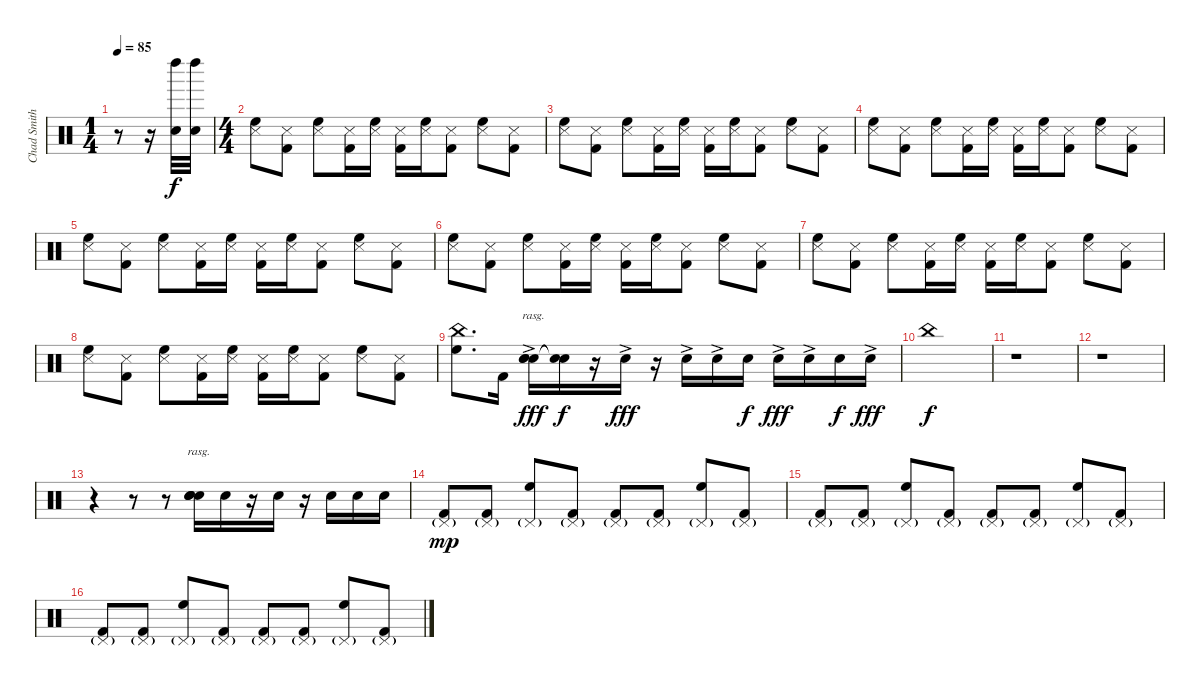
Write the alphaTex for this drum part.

\track ("Chad Smith - Drums" "Chad Smith") {instrument percussion}
\staff {score}
\articulation defaults
\ts (1 4)
\tempo 85
\clef neutral
\ks c
r.8{dy f} r.16 ("Left Maraca (hit)" "Electric Snare (hit)").32 ("Left Maraca (hit)" "Electric Snare (hit)").32 |
\ts (4 4)
("Snare (side stick) 3" "High Floor Tom (hit)").8 ("Snare (side stick) 3" "Kick (hit) 2").8 ("Snare (side stick) 3" "High Floor Tom (hit)").8 ("Snare (side stick) 3" "Kick (hit) 2").16 ("Snare (side stick) 3" "High Floor Tom (hit)").16 ("Snare (side stick) 3" "Kick (hit) 2").16 ("Snare (side stick) 3" "High Floor Tom (hit)").16 ("Snare (side stick) 3" "Kick (hit) 2").8 ("Snare (side stick) 3" "High Floor Tom (hit)").8 ("Snare (side stick) 3" "Kick (hit) 2").8 |
("Snare (side stick) 3" "High Floor Tom (hit)").8 ("Snare (side stick) 3" "Kick (hit) 2").8 ("Snare (side stick) 3" "High Floor Tom (hit)").8 ("Snare (side stick) 3" "Kick (hit) 2").16 ("Snare (side stick) 3" "High Floor Tom (hit)").16 ("Snare (side stick) 3" "Kick (hit) 2").16 ("Snare (side stick) 3" "High Floor Tom (hit)").16 ("Snare (side stick) 3" "Kick (hit) 2").8 ("Snare (side stick) 3" "High Floor Tom (hit)").8 ("Snare (side stick) 3" "Kick (hit) 2").8 |
("Snare (side stick) 3" "High Floor Tom (hit)").8 ("Snare (side stick) 3" "Kick (hit) 2").8 ("Snare (side stick) 3" "High Floor Tom (hit)").8 ("Snare (side stick) 3" "Kick (hit) 2").16 ("Snare (side stick) 3" "High Floor Tom (hit)").16 ("Snare (side stick) 3" "Kick (hit) 2").16 ("Snare (side stick) 3" "High Floor Tom (hit)").16 ("Snare (side stick) 3" "Kick (hit) 2").8 ("Snare (side stick) 3" "High Floor Tom (hit)").8 ("Snare (side stick) 3" "Kick (hit) 2").8 |
("Snare (side stick) 3" "High Floor Tom (hit)").8 ("Snare (side stick) 3" "Kick (hit) 2").8 ("Snare (side stick) 3" "High Floor Tom (hit)").8 ("Snare (side stick) 3" "Kick (hit) 2").16 ("Snare (side stick) 3" "High Floor Tom (hit)").16 ("Snare (side stick) 3" "Kick (hit) 2").16 ("Snare (side stick) 3" "High Floor Tom (hit)").16 ("Snare (side stick) 3" "Kick (hit) 2").8 ("Snare (side stick) 3" "High Floor Tom (hit)").8 ("Snare (side stick) 3" "Kick (hit) 2").8 |
("Snare (side stick) 3" "High Floor Tom (hit)").8 ("Snare (side stick) 3" "Kick (hit) 2").8 ("Snare (side stick) 3" "High Floor Tom (hit)").8 ("Snare (side stick) 3" "Kick (hit) 2").16 ("Snare (side stick) 3" "High Floor Tom (hit)").16 ("Snare (side stick) 3" "Kick (hit) 2").16 ("Snare (side stick) 3" "High Floor Tom (hit)").16 ("Snare (side stick) 3" "Kick (hit) 2").8 ("Snare (side stick) 3" "High Floor Tom (hit)").8 ("Snare (side stick) 3" "Kick (hit) 2").8 |
("Snare (side stick) 3" "High Floor Tom (hit)").8 ("Snare (side stick) 3" "Kick (hit) 2").8 ("Snare (side stick) 3" "High Floor Tom (hit)").8 ("Snare (side stick) 3" "Kick (hit) 2").16 ("Snare (side stick) 3" "High Floor Tom (hit)").16 ("Snare (side stick) 3" "Kick (hit) 2").16 ("Snare (side stick) 3" "High Floor Tom (hit)").16 ("Snare (side stick) 3" "Kick (hit) 2").8 ("Snare (side stick) 3" "High Floor Tom (hit)").8 ("Snare (side stick) 3" "Kick (hit) 2").8 |
("Snare (side stick) 3" "High Floor Tom (hit)").8 ("Snare (side stick) 3" "Kick (hit) 2").8 ("Snare (side stick) 3" "High Floor Tom (hit)").8 ("Snare (side stick) 3" "Kick (hit) 2").16 ("Snare (side stick) 3" "High Floor Tom (hit)").16 ("Snare (side stick) 3" "Kick (hit) 2").16 ("Snare (side stick) 3" "High Floor Tom (hit)").16 ("Snare (side stick) 3" "Kick (hit) 2").8 ("Snare (side stick) 3" "High Floor Tom (hit)").8 ("Snare (side stick) 3" "Kick (hit) 2").8 |
("China (hit)" "High Floor Tom (hit)").8{d} "Kick (hit) 2".16 ("Snare (hit) 2" "Electric Snare (hit)"{ac} "Electric Snare (hit)").16{bu 480 rasg ii dy fff} ("Snare (hit)"{t} "Electric Snare (hit)"{t}).16{dy f} r.16 "Electric Snare (hit)"{ac}.16{dy fff} r.16 "Snare (hit) 2"{ac}.16 "Snare (hit) 2"{ac}.16 "Snare (hit) 2".16{dy f} "Snare (hit) 2"{ac}.16{dy fff} "Snare (hit) 2"{ac}.16 "Snare (hit) 2".16{dy f} "Snare (hit) 2"{ac}.16{dy fff} |
"China (hit)".1{dy f} |
r.1 |
r.1 |
r.4 r.8 r.8 ("Electric Snare (hit)" "Electric Snare (hit)" "Snare (hit) 2" "Electric Snare (hit)").16{bd 120 rasg ii} "Electric Snare (hit)".16 r.16 "Electric Snare (hit)".16 r.16 "Snare (hit) 2".16 "Snare (hit) 2".16 "Snare (hit) 2".16 |
("Pedal Hi-Hat (hit)"{g} "Kick (hit) 2").8{dy mp} ("Pedal Hi-Hat (hit)"{g} "Kick (hit) 2").8 ("Pedal Hi-Hat (hit)"{g} "High Floor Tom (hit)").8 ("Pedal Hi-Hat (hit)"{g} "Kick (hit) 2").8 ("Pedal Hi-Hat (hit)"{g} "Kick (hit) 2").8 ("Pedal Hi-Hat (hit)"{g} "Kick (hit) 2").8 ("Pedal Hi-Hat (hit)"{g} "High Floor Tom (hit)").8 ("Pedal Hi-Hat (hit)"{g} "Kick (hit) 2").8 |
("Pedal Hi-Hat (hit)"{g} "Kick (hit) 2").8 ("Pedal Hi-Hat (hit)"{g} "Kick (hit) 2").8 ("Pedal Hi-Hat (hit)"{g} "High Floor Tom (hit)").8 ("Pedal Hi-Hat (hit)"{g} "Kick (hit) 2").8 ("Pedal Hi-Hat (hit)"{g} "Kick (hit) 2").8 ("Pedal Hi-Hat (hit)"{g} "Kick (hit) 2").8 ("Pedal Hi-Hat (hit)"{g} "High Floor Tom (hit)").8 ("Pedal Hi-Hat (hit)"{g} "Kick (hit) 2").8 |
("Pedal Hi-Hat (hit)"{g} "Kick (hit) 2").8 ("Pedal Hi-Hat (hit)"{g} "Kick (hit) 2").8 ("Pedal Hi-Hat (hit)"{g} "High Floor Tom (hit)").8 ("Pedal Hi-Hat (hit)"{g} "Kick (hit) 2").8 ("Pedal Hi-Hat (hit)"{g} "Kick (hit) 2").8 ("Pedal Hi-Hat (hit)"{g} "Kick (hit) 2").8 ("Pedal Hi-Hat (hit)"{g} "High Floor Tom (hit)").8 ("Pedal Hi-Hat (hit)"{g} "Kick (hit) 2").8
